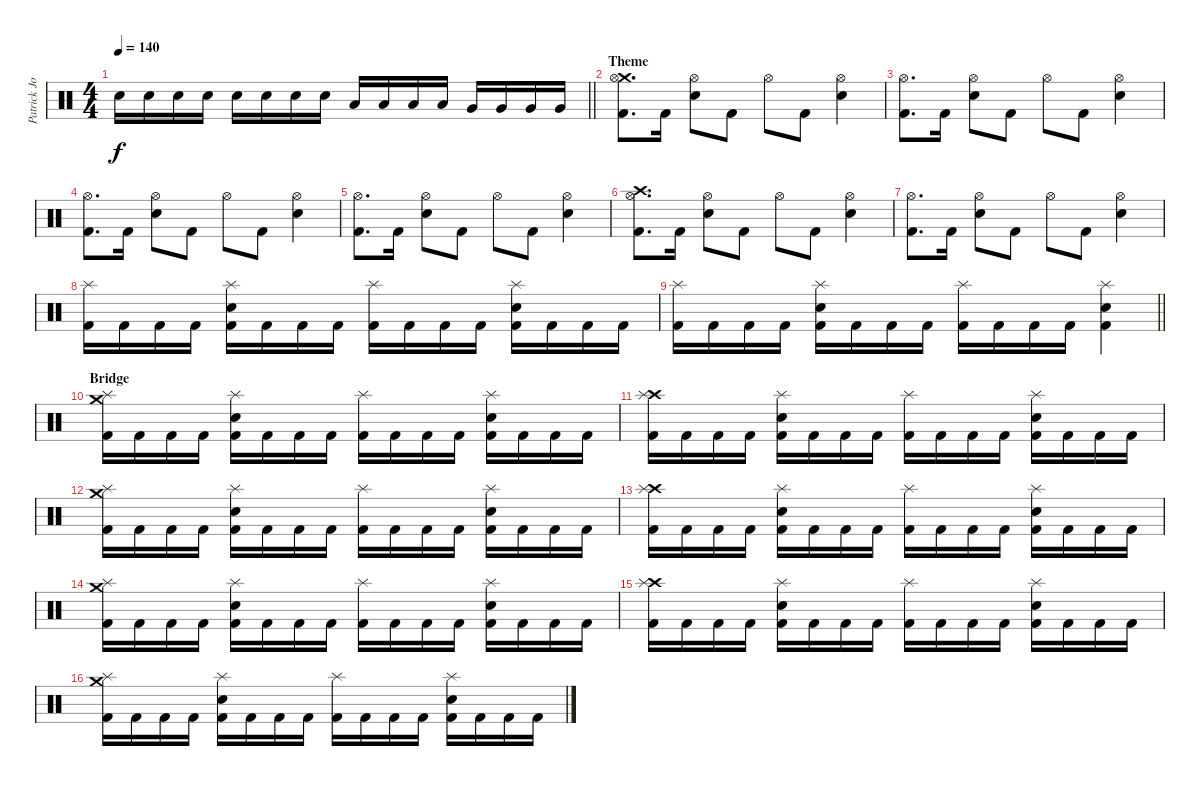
\track ("Patrick Johansson" "Patrick Jo") {instrument percussion}
\staff {score}
\articulation defaults
\ts (4 4)
\tempo 140
\clef neutral
\barLineRight lightlight
\ks c "Snare (hit) 2".16{dy f} "Snare (hit) 2".16 "Snare (hit) 2".16 "Snare (hit) 2".16 "Snare (hit) 2".16 "Snare (hit) 2".16 "Snare (hit) 2".16 "Snare (hit) 2".16 "Low Tom (hit)".16 "Low Tom (hit)".16 "Low Tom (hit)".16 "Low Tom (hit)".16 "Very Low Tom (hit)".16 "Very Low Tom (hit)".16 "Very Low Tom (hit)".16 "Very Low Tom (hit)".16
|
\section ("" "Theme")
("Crash medium (hit)" "Hi-Hat (open)" "Kick (hit) 2").8{d} "Kick (hit) 2".16 ("Hi-Hat (open)" "Snare (hit) 2").8 "Kick (hit) 2".8 "Hi-Hat (open)".8 "Kick (hit) 2".8 ("Hi-Hat (open)" "Snare (hit) 2").4 |
("Hi-Hat (open)" "Kick (hit) 2").8{d} "Kick (hit) 2".16 ("Hi-Hat (open)" "Snare (hit) 2").8 "Kick (hit) 2".8 "Hi-Hat (open)".8 "Kick (hit) 2".8 ("Hi-Hat (open)" "Snare (hit) 2").4 |
("Hi-Hat (open)" "Kick (hit) 2").8{d} "Kick (hit) 2".16 ("Hi-Hat (open)" "Snare (hit) 2").8 "Kick (hit) 2".8 "Hi-Hat (open)".8 "Kick (hit) 2".8 ("Hi-Hat (open)" "Snare (hit) 2").4 |
("Hi-Hat (open)" "Kick (hit) 2").8{d} "Kick (hit) 2".16 ("Hi-Hat (open)" "Snare (hit) 2").8 "Kick (hit) 2".8 "Hi-Hat (open)".8 "Kick (hit) 2".8 ("Hi-Hat (open)" "Snare (hit) 2").4 |
("Crash high (hit)" "Hi-Hat (open)" "Kick (hit) 2").8{d} "Kick (hit) 2".16 ("Hi-Hat (open)" "Snare (hit) 2").8 "Kick (hit) 2".8 "Hi-Hat (open)".8 "Kick (hit) 2".8 ("Hi-Hat (open)" "Snare (hit) 2").4 |
("Hi-Hat (open)" "Kick (hit) 2").8{d} "Kick (hit) 2".16 ("Hi-Hat (open)" "Snare (hit) 2").8 "Kick (hit) 2".8 "Hi-Hat (open)".8 "Kick (hit) 2".8 ("Hi-Hat (open)" "Snare (hit) 2").4 |
("Splash (hit)" "Kick (hit) 2").16 "Kick (hit) 2".16 "Kick (hit) 2".16 "Kick (hit) 2".16 ("Splash (hit)" "Snare (hit) 2" "Kick (hit) 2").16 "Kick (hit) 2".16 "Kick (hit) 2".16 "Kick (hit) 2".16 ("Splash (hit)" "Kick (hit) 2").16 "Kick (hit) 2".16 "Kick (hit) 2".16 "Kick (hit) 2".16 ("Splash (hit)" "Snare (hit) 2" "Kick (hit) 2").16 "Kick (hit) 2".16 "Kick (hit) 2".16 "Kick (hit) 2".16 |
\barLineRight lightlight
("Splash (hit)" "Kick (hit) 2").16 "Kick (hit) 2".16 "Kick (hit) 2".16 "Kick (hit) 2".16 ("Splash (hit)" "Snare (hit) 2" "Kick (hit) 2").16 "Kick (hit) 2".16 "Kick (hit) 2".16 "Kick (hit) 2".16 ("Splash (hit)" "Kick (hit) 2").16 "Kick (hit) 2".16 "Kick (hit) 2".16 "Kick (hit) 2".16 ("Splash (hit)" "Snare (hit) 2" "Kick (hit) 2").4 |
\section ("" "Bridge")
("Crash medium (hit)" "Splash (hit)" "Kick (hit) 2").16 "Kick (hit) 2".16 "Kick (hit) 2".16 "Kick (hit) 2".16 ("Splash (hit)" "Snare (hit) 2" "Kick (hit) 2").16 "Kick (hit) 2".16 "Kick (hit) 2".16 "Kick (hit) 2".16 ("Splash (hit)" "Kick (hit) 2").16 "Kick (hit) 2".16 "Kick (hit) 2".16 "Kick (hit) 2".16 ("Splash (hit)" "Snare (hit) 2" "Kick (hit) 2").16 "Kick (hit) 2".16 "Kick (hit) 2".16 "Kick (hit) 2".16 |
("Crash high (hit)" "Splash (hit)" "Kick (hit) 2").16 "Kick (hit) 2".16 "Kick (hit) 2".16 "Kick (hit) 2".16 ("Splash (hit)" "Snare (hit) 2" "Kick (hit) 2").16 "Kick (hit) 2".16 "Kick (hit) 2".16 "Kick (hit) 2".16 ("Splash (hit)" "Kick (hit) 2").16 "Kick (hit) 2".16 "Kick (hit) 2".16 "Kick (hit) 2".16 ("Splash (hit)" "Snare (hit) 2" "Kick (hit) 2").16 "Kick (hit) 2".16 "Kick (hit) 2".16 "Kick (hit) 2".16 |
("Crash medium (hit)" "Splash (hit)" "Kick (hit) 2").16 "Kick (hit) 2".16 "Kick (hit) 2".16 "Kick (hit) 2".16 ("Splash (hit)" "Snare (hit) 2" "Kick (hit) 2").16 "Kick (hit) 2".16 "Kick (hit) 2".16 "Kick (hit) 2".16 ("Splash (hit)" "Kick (hit) 2").16 "Kick (hit) 2".16 "Kick (hit) 2".16 "Kick (hit) 2".16 ("Splash (hit)" "Snare (hit) 2" "Kick (hit) 2").16 "Kick (hit) 2".16 "Kick (hit) 2".16 "Kick (hit) 2".16 |
("Crash high (hit)" "Splash (hit)" "Kick (hit) 2").16 "Kick (hit) 2".16 "Kick (hit) 2".16 "Kick (hit) 2".16 ("Splash (hit)" "Snare (hit) 2" "Kick (hit) 2").16 "Kick (hit) 2".16 "Kick (hit) 2".16 "Kick (hit) 2".16 ("Splash (hit)" "Kick (hit) 2").16 "Kick (hit) 2".16 "Kick (hit) 2".16 "Kick (hit) 2".16 ("Splash (hit)" "Snare (hit) 2" "Kick (hit) 2").16 "Kick (hit) 2".16 "Kick (hit) 2".16 "Kick (hit) 2".16 |
("Crash medium (hit)" "Splash (hit)" "Kick (hit) 2").16 "Kick (hit) 2".16 "Kick (hit) 2".16 "Kick (hit) 2".16 ("Splash (hit)" "Snare (hit) 2" "Kick (hit) 2").16 "Kick (hit) 2".16 "Kick (hit) 2".16 "Kick (hit) 2".16 ("Splash (hit)" "Kick (hit) 2").16 "Kick (hit) 2".16 "Kick (hit) 2".16 "Kick (hit) 2".16 ("Splash (hit)" "Snare (hit) 2" "Kick (hit) 2").16 "Kick (hit) 2".16 "Kick (hit) 2".16 "Kick (hit) 2".16 |
("Crash high (hit)" "Splash (hit)" "Kick (hit) 2").16 "Kick (hit) 2".16 "Kick (hit) 2".16 "Kick (hit) 2".16 ("Splash (hit)" "Snare (hit) 2" "Kick (hit) 2").16 "Kick (hit) 2".16 "Kick (hit) 2".16 "Kick (hit) 2".16 ("Splash (hit)" "Kick (hit) 2").16 "Kick (hit) 2".16 "Kick (hit) 2".16 "Kick (hit) 2".16 ("Splash (hit)" "Snare (hit) 2" "Kick (hit) 2").16 "Kick (hit) 2".16 "Kick (hit) 2".16 "Kick (hit) 2".16 |
("Crash medium (hit)" "Splash (hit)" "Kick (hit) 2").16 "Kick (hit) 2".16 "Kick (hit) 2".16 "Kick (hit) 2".16 ("Splash (hit)" "Snare (hit) 2" "Kick (hit) 2").16 "Kick (hit) 2".16 "Kick (hit) 2".16 "Kick (hit) 2".16 ("Splash (hit)" "Kick (hit) 2").16 "Kick (hit) 2".16 "Kick (hit) 2".16 "Kick (hit) 2".16 ("Splash (hit)" "Snare (hit) 2" "Kick (hit) 2").16 "Kick (hit) 2".16 "Kick (hit) 2".16 "Kick (hit) 2".16
